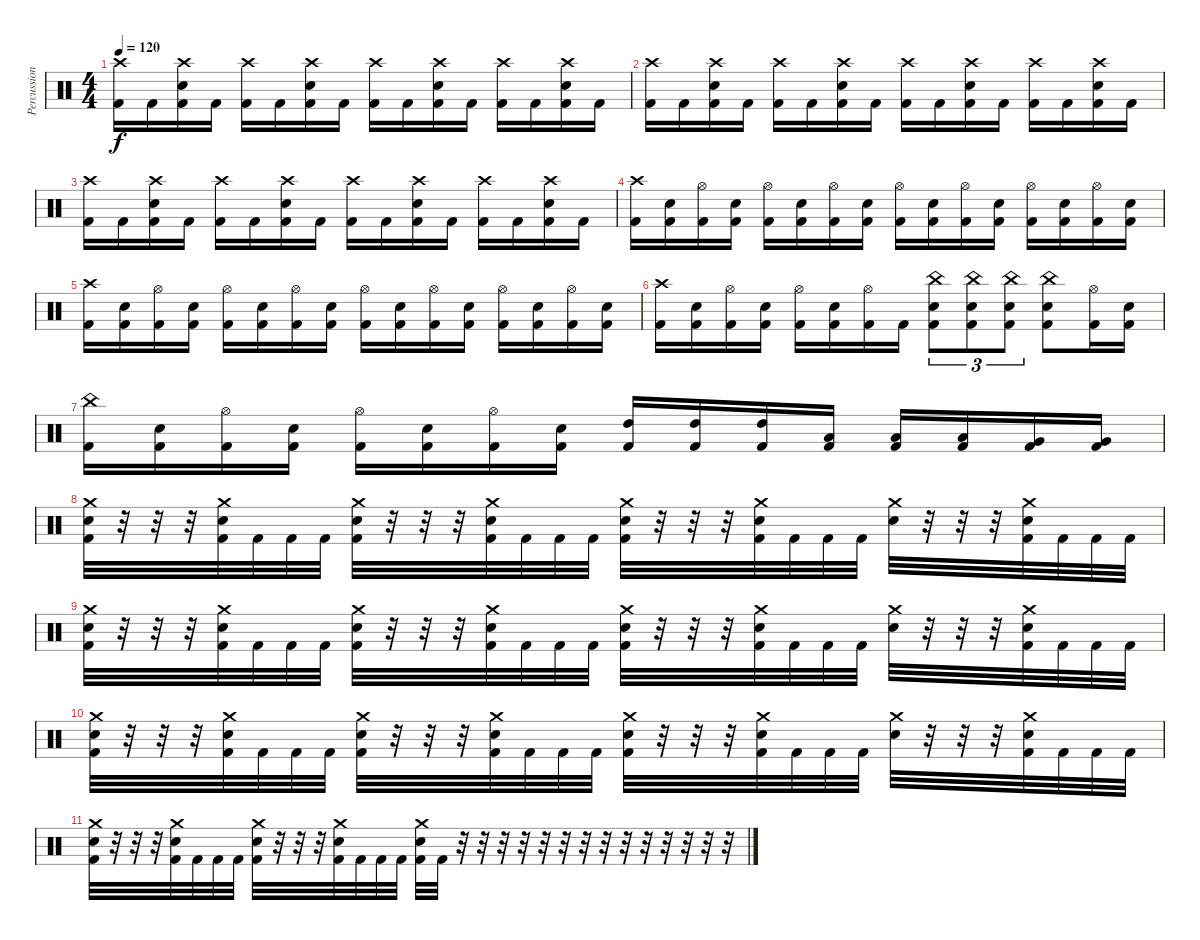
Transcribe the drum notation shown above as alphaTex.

\track ("Percussion" "Percussion") {instrument percussion}
\staff {score}
\articulation defaults
\ts (4 4)
\tempo 120
\clef neutral
\ks c
("Crash high (hit)" "Kick (hit) 2").16{dy f} "Kick (hit) 2".16 ("Crash high (hit)" "Snare (hit) 2" "Kick (hit) 2").16 "Kick (hit) 2".16 ("Crash high (hit)" "Kick (hit) 2").16 "Kick (hit) 2".16 ("Crash high (hit)" "Snare (hit) 2" "Kick (hit) 2").16 "Kick (hit) 2".16 ("Crash high (hit)" "Kick (hit) 2").16 "Kick (hit) 2".16 ("Crash high (hit)" "Snare (hit) 2" "Kick (hit) 2").16 "Kick (hit) 2".16 ("Crash high (hit)" "Kick (hit) 2").16 "Kick (hit) 2".16 ("Crash high (hit)" "Snare (hit) 2" "Kick (hit) 2").16 "Kick (hit) 2".16 |
("Crash high (hit)" "Kick (hit) 2").16 "Kick (hit) 2".16 ("Crash high (hit)" "Snare (hit) 2" "Kick (hit) 2").16 "Kick (hit) 2".16 ("Crash high (hit)" "Kick (hit) 2").16 "Kick (hit) 2".16 ("Crash high (hit)" "Snare (hit) 2" "Kick (hit) 2").16 "Kick (hit) 2".16 ("Crash high (hit)" "Kick (hit) 2").16 "Kick (hit) 2".16 ("Crash high (hit)" "Snare (hit) 2" "Kick (hit) 2").16 "Kick (hit) 2".16 ("Crash high (hit)" "Kick (hit) 2").16 "Kick (hit) 2".16 ("Crash high (hit)" "Snare (hit) 2" "Kick (hit) 2").16 "Kick (hit) 2".16 |
("Crash high (hit)" "Kick (hit) 2").16 "Kick (hit) 2".16 ("Crash high (hit)" "Snare (hit) 2" "Kick (hit) 2").16 "Kick (hit) 2".16 ("Crash high (hit)" "Kick (hit) 2").16 "Kick (hit) 2".16 ("Crash high (hit)" "Snare (hit) 2" "Kick (hit) 2").16 "Kick (hit) 2".16 ("Crash high (hit)" "Kick (hit) 2").16 "Kick (hit) 2".16 ("Crash high (hit)" "Snare (hit) 2" "Kick (hit) 2").16 "Kick (hit) 2".16 ("Crash high (hit)" "Kick (hit) 2").16 "Kick (hit) 2".16 ("Crash high (hit)" "Snare (hit) 2" "Kick (hit) 2").16 "Kick (hit) 2".16 |
("Crash high (hit)" "Kick (hit) 2").16 ("Snare (hit) 2" "Kick (hit) 2").16 ("Hi-Hat (open)" "Kick (hit) 2").16 ("Snare (hit) 2" "Kick (hit) 2").16 ("Hi-Hat (open)" "Kick (hit) 2").16 ("Snare (hit) 2" "Kick (hit) 2").16 ("Hi-Hat (open)" "Kick (hit) 2").16 ("Snare (hit) 2" "Kick (hit) 2").16 ("Hi-Hat (open)" "Kick (hit) 2").16 ("Snare (hit) 2" "Kick (hit) 2").16 ("Hi-Hat (open)" "Kick (hit) 2").16 ("Snare (hit) 2" "Kick (hit) 2").16 ("Hi-Hat (open)" "Kick (hit) 2").16 ("Snare (hit) 2" "Kick (hit) 2").16 ("Hi-Hat (open)" "Kick (hit) 2").16 ("Snare (hit) 2" "Kick (hit) 2").16 |
("Crash high (hit)" "Kick (hit) 2").16 ("Snare (hit) 2" "Kick (hit) 2").16 ("Hi-Hat (open)" "Kick (hit) 2").16 ("Snare (hit) 2" "Kick (hit) 2").16 ("Hi-Hat (open)" "Kick (hit) 2").16 ("Snare (hit) 2" "Kick (hit) 2").16 ("Hi-Hat (open)" "Kick (hit) 2").16 ("Snare (hit) 2" "Kick (hit) 2").16 ("Hi-Hat (open)" "Kick (hit) 2").16 ("Snare (hit) 2" "Kick (hit) 2").16 ("Hi-Hat (open)" "Kick (hit) 2").16 ("Snare (hit) 2" "Kick (hit) 2").16 ("Hi-Hat (open)" "Kick (hit) 2").16 ("Snare (hit) 2" "Kick (hit) 2").16 ("Hi-Hat (open)" "Kick (hit) 2").16 ("Snare (hit) 2" "Kick (hit) 2").16 |
("Crash high (hit)" "Kick (hit) 2").16 ("Snare (hit) 2" "Kick (hit) 2").16 ("Hi-Hat (open)" "Kick (hit) 2").16 ("Snare (hit) 2" "Kick (hit) 2").16 ("Hi-Hat (open)" "Kick (hit) 2").16 ("Snare (hit) 2" "Kick (hit) 2").16 ("Hi-Hat (open)" "Kick (hit) 2").16 "Kick (hit) 2".16 ("China (hit)" "Snare (hit) 2" "Kick (hit) 2").8{tu (3 2)} ("China (hit)" "Snare (hit) 2" "Kick (hit) 2").8{tu (3 2)} ("China (hit)" "Snare (hit) 2" "Kick (hit) 2").8{tu (3 2)} ("China (hit)" "Snare (hit) 2" "Kick (hit) 2").8 ("Hi-Hat (open)" "Kick (hit) 2").16 ("Snare (hit) 2" "Kick (hit) 2").16 |
("China (hit)" "Kick (hit) 2").16 ("Snare (hit) 2" "Kick (hit) 2").16 ("Hi-Hat (open)" "Kick (hit) 2").16 ("Snare (hit) 2" "Kick (hit) 2").16 ("Hi-Hat (open)" "Kick (hit) 2").16 ("Snare (hit) 2" "Kick (hit) 2").16 ("Hi-Hat (open)" "Kick (hit) 2").16 ("Snare (hit) 2" "Kick (hit) 2").16 ("High Tom (hit)" "Kick (hit) 2").16 ("High Tom (hit)" "Kick (hit) 2").16 ("High Tom (hit)" "Kick (hit) 2").16 ("Low Tom (hit)" "Kick (hit) 2").16 ("Low Tom (hit)" "Kick (hit) 2").16 ("Low Tom (hit)" "Kick (hit) 2").16 ("Very Low Tom (hit)" "Kick (hit) 2").16 ("Very Low Tom (hit)" "Kick (hit) 2").16 |
("Crash medium (hit)" "Snare (hit) 2" "Kick (hit) 2").32 r.32 r.32 r.32 ("Crash medium (hit)" "Snare (hit) 2" "Kick (hit) 2").32 "Kick (hit) 2".32 "Kick (hit) 2".32 "Kick (hit) 2".32 ("Crash medium (hit)" "Snare (hit) 2" "Kick (hit) 2").32 r.32 r.32 r.32 ("Crash medium (hit)" "Snare (hit) 2" "Kick (hit) 2").32 "Kick (hit) 2".32 "Kick (hit) 2".32 "Kick (hit) 2".32 ("Crash medium (hit)" "Snare (hit) 2" "Kick (hit) 2").32 r.32 r.32 r.32 ("Crash medium (hit)" "Snare (hit) 2" "Kick (hit) 2").32 "Kick (hit) 2".32 "Kick (hit) 2".32 "Kick (hit) 2".32 ("Crash medium (hit)" "Snare (hit) 2").32 r.32 r.32 r.32 ("Crash medium (hit)" "Snare (hit) 2" "Kick (hit) 2").32 "Kick (hit) 2".32 "Kick (hit) 2".32 "Kick (hit) 2".32 |
("Crash medium (hit)" "Snare (hit) 2" "Kick (hit) 2").32 r.32 r.32 r.32 ("Crash medium (hit)" "Snare (hit) 2" "Kick (hit) 2").32 "Kick (hit) 2".32 "Kick (hit) 2".32 "Kick (hit) 2".32 ("Crash medium (hit)" "Snare (hit) 2" "Kick (hit) 2").32 r.32 r.32 r.32 ("Crash medium (hit)" "Snare (hit) 2" "Kick (hit) 2").32 "Kick (hit) 2".32 "Kick (hit) 2".32 "Kick (hit) 2".32 ("Crash medium (hit)" "Snare (hit) 2" "Kick (hit) 2").32 r.32 r.32 r.32 ("Crash medium (hit)" "Snare (hit) 2" "Kick (hit) 2").32 "Kick (hit) 2".32 "Kick (hit) 2".32 "Kick (hit) 2".32 ("Crash medium (hit)" "Snare (hit) 2").32 r.32 r.32 r.32 ("Crash medium (hit)" "Snare (hit) 2" "Kick (hit) 2").32 "Kick (hit) 2".32 "Kick (hit) 2".32 "Kick (hit) 2".32 |
("Crash medium (hit)" "Snare (hit) 2" "Kick (hit) 2").32 r.32 r.32 r.32 ("Crash medium (hit)" "Snare (hit) 2" "Kick (hit) 2").32 "Kick (hit) 2".32 "Kick (hit) 2".32 "Kick (hit) 2".32 ("Crash medium (hit)" "Snare (hit) 2" "Kick (hit) 2").32 r.32 r.32 r.32 ("Crash medium (hit)" "Snare (hit) 2" "Kick (hit) 2").32 "Kick (hit) 2".32 "Kick (hit) 2".32 "Kick (hit) 2".32 ("Crash medium (hit)" "Snare (hit) 2" "Kick (hit) 2").32 r.32 r.32 r.32 ("Crash medium (hit)" "Snare (hit) 2" "Kick (hit) 2").32 "Kick (hit) 2".32 "Kick (hit) 2".32 "Kick (hit) 2".32 ("Crash medium (hit)" "Snare (hit) 2").32 r.32 r.32 r.32 ("Crash medium (hit)" "Snare (hit) 2" "Kick (hit) 2").32 "Kick (hit) 2".32 "Kick (hit) 2".32 "Kick (hit) 2".32 |
("Crash medium (hit)" "Snare (hit) 2" "Kick (hit) 2").32 r.32 r.32 r.32 ("Crash medium (hit)" "Snare (hit) 2" "Kick (hit) 2").32 "Kick (hit) 2".32 "Kick (hit) 2".32 "Kick (hit) 2".32 ("Crash medium (hit)" "Snare (hit) 2" "Kick (hit) 2").32 r.32 r.32 r.32 ("Crash medium (hit)" "Snare (hit) 2" "Kick (hit) 2").32 "Kick (hit) 2".32 "Kick (hit) 2".32 "Kick (hit) 2".32 ("Crash medium (hit)" "Snare (hit) 2" "Kick (hit) 2").32 "Kick (hit) 2".32 r.32 r.32 r.32 r.32 r.32 r.32 r.32 r.32 r.32 r.32 r.32 r.32 r.32 r.32
